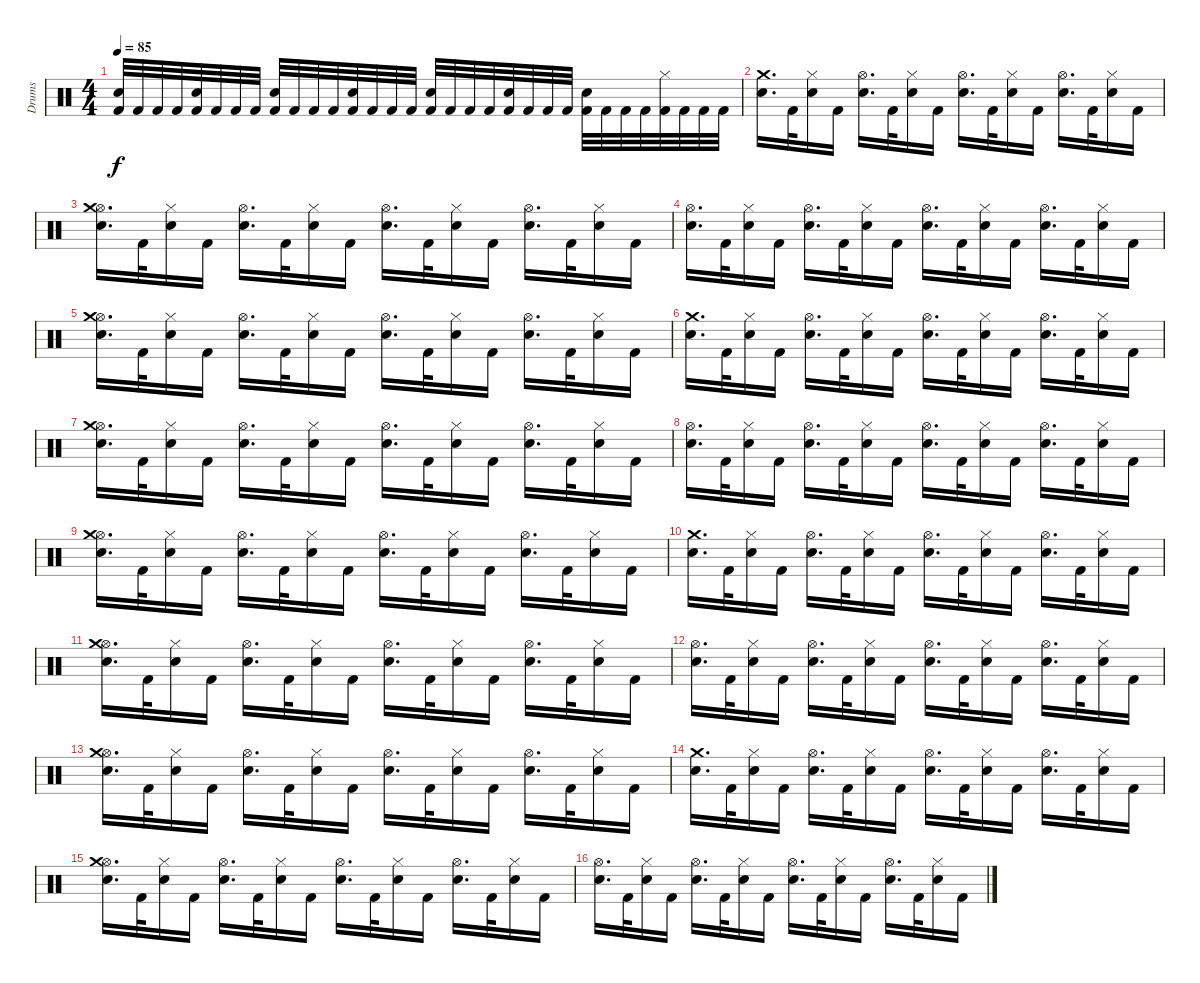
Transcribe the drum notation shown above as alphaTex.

\track ("Drums" "Drums") {instrument percussion}
\staff {score}
\articulation defaults
\ts (4 4)
\tempo 85
\clef neutral
\ks c
("Electric Snare (hit)" "Kick (hit) 2").32{dy f} "Kick (hit) 2".32 "Kick (hit) 2".32 "Kick (hit) 2".32 ("Electric Snare (hit)" "Kick (hit) 2").32 "Kick (hit) 2".32 "Kick (hit) 2".32 "Kick (hit) 2".32 ("Electric Snare (hit)" "Kick (hit) 2").32 "Kick (hit) 2".32 "Kick (hit) 2".32 "Kick (hit) 2".32 ("Electric Snare (hit)" "Kick (hit) 2").32 "Kick (hit) 2".32 "Kick (hit) 2".32 "Kick (hit) 2".32 ("Electric Snare (hit)" "Kick (hit) 2").32 "Kick (hit) 2".32 "Kick (hit) 2".32 "Kick (hit) 2".32 ("Electric Snare (hit)" "Kick (hit) 2").32 "Kick (hit) 2".32 "Kick (hit) 2".32 "Kick (hit) 2".32 ("Electric Snare (hit)" "Kick (hit) 2").32 "Kick (hit) 2".32 "Kick (hit) 2".32 "Kick (hit) 2".32 ("Hi-Hat (closed)" "Kick (hit) 2").32 "Kick (hit) 2".32 "Kick (hit) 2".32 "Kick (hit) 2".32 |
("Crash medium (hit)" "Electric Snare (hit)").16{d} "Kick (hit) 2".32 ("Hi-Hat (closed)" "Electric Snare (hit)").16 "Kick (hit) 2".16 ("Hi-Hat (open)" "Electric Snare (hit)").16{d} "Kick (hit) 2".32 ("Hi-Hat (closed)" "Electric Snare (hit)").16 "Kick (hit) 2".16 ("Hi-Hat (open)" "Electric Snare (hit)").16{d} "Kick (hit) 2".32 ("Hi-Hat (closed)" "Electric Snare (hit)").16 "Kick (hit) 2".16 ("Hi-Hat (open)" "Electric Snare (hit)").16{d} "Kick (hit) 2".32 ("Hi-Hat (closed)" "Electric Snare (hit)").16 "Kick (hit) 2".16 |
("Hi-Hat (open)" "Crash medium (hit)" "Electric Snare (hit)").16{d} "Kick (hit) 2".32 ("Hi-Hat (closed)" "Electric Snare (hit)").16 "Kick (hit) 2".16 ("Hi-Hat (open)" "Electric Snare (hit)").16{d} "Kick (hit) 2".32 ("Hi-Hat (closed)" "Electric Snare (hit)").16 "Kick (hit) 2".16 ("Hi-Hat (open)" "Electric Snare (hit)").16{d} "Kick (hit) 2".32 ("Hi-Hat (closed)" "Electric Snare (hit)").16 "Kick (hit) 2".16 ("Hi-Hat (open)" "Electric Snare (hit)").16{d} "Kick (hit) 2".32 ("Hi-Hat (closed)" "Electric Snare (hit)").16 "Kick (hit) 2".16 |
("Hi-Hat (open)" "Electric Snare (hit)").16{d} "Kick (hit) 2".32 ("Hi-Hat (closed)" "Electric Snare (hit)").16 "Kick (hit) 2".16 ("Hi-Hat (open)" "Electric Snare (hit)").16{d} "Kick (hit) 2".32 ("Hi-Hat (closed)" "Electric Snare (hit)").16 "Kick (hit) 2".16 ("Hi-Hat (open)" "Electric Snare (hit)").16{d} "Kick (hit) 2".32 ("Hi-Hat (closed)" "Electric Snare (hit)").16 "Kick (hit) 2".16 ("Hi-Hat (open)" "Electric Snare (hit)").16{d} "Kick (hit) 2".32 ("Hi-Hat (closed)" "Electric Snare (hit)").16 "Kick (hit) 2".16 |
("Hi-Hat (open)" "Crash medium (hit)" "Electric Snare (hit)").16{d} "Kick (hit) 2".32 ("Hi-Hat (closed)" "Electric Snare (hit)").16 "Kick (hit) 2".16 ("Hi-Hat (open)" "Electric Snare (hit)").16{d} "Kick (hit) 2".32 ("Hi-Hat (closed)" "Electric Snare (hit)").16 "Kick (hit) 2".16 ("Hi-Hat (open)" "Electric Snare (hit)").16{d} "Kick (hit) 2".32 ("Hi-Hat (closed)" "Electric Snare (hit)").16 "Kick (hit) 2".16 ("Hi-Hat (open)" "Electric Snare (hit)").16{d} "Kick (hit) 2".32 ("Hi-Hat (closed)" "Electric Snare (hit)").16 "Kick (hit) 2".16 |
("Crash medium (hit)" "Electric Snare (hit)").16{d volume 10} "Kick (hit) 2".32 ("Hi-Hat (closed)" "Electric Snare (hit)").16 "Kick (hit) 2".16 ("Hi-Hat (open)" "Electric Snare (hit)").16{d} "Kick (hit) 2".32 ("Hi-Hat (closed)" "Electric Snare (hit)").16 "Kick (hit) 2".16 ("Hi-Hat (open)" "Electric Snare (hit)").16{d} "Kick (hit) 2".32 ("Hi-Hat (closed)" "Electric Snare (hit)").16 "Kick (hit) 2".16 ("Hi-Hat (open)" "Electric Snare (hit)").16{d} "Kick (hit) 2".32 ("Hi-Hat (closed)" "Electric Snare (hit)").16 "Kick (hit) 2".16 |
("Hi-Hat (open)" "Crash medium (hit)" "Electric Snare (hit)").16{d} "Kick (hit) 2".32 ("Hi-Hat (closed)" "Electric Snare (hit)").16 "Kick (hit) 2".16 ("Hi-Hat (open)" "Electric Snare (hit)").16{d} "Kick (hit) 2".32 ("Hi-Hat (closed)" "Electric Snare (hit)").16 "Kick (hit) 2".16 ("Hi-Hat (open)" "Electric Snare (hit)").16{d} "Kick (hit) 2".32 ("Hi-Hat (closed)" "Electric Snare (hit)").16 "Kick (hit) 2".16 ("Hi-Hat (open)" "Electric Snare (hit)").16{d} "Kick (hit) 2".32 ("Hi-Hat (closed)" "Electric Snare (hit)").16 "Kick (hit) 2".16 |
("Hi-Hat (open)" "Electric Snare (hit)").16{d} "Kick (hit) 2".32 ("Hi-Hat (closed)" "Electric Snare (hit)").16 "Kick (hit) 2".16 ("Hi-Hat (open)" "Electric Snare (hit)").16{d} "Kick (hit) 2".32 ("Hi-Hat (closed)" "Electric Snare (hit)").16 "Kick (hit) 2".16 ("Hi-Hat (open)" "Electric Snare (hit)").16{d} "Kick (hit) 2".32 ("Hi-Hat (closed)" "Electric Snare (hit)").16 "Kick (hit) 2".16 ("Hi-Hat (open)" "Electric Snare (hit)").16{d} "Kick (hit) 2".32 ("Hi-Hat (closed)" "Electric Snare (hit)").16 "Kick (hit) 2".16 |
("Hi-Hat (open)" "Crash medium (hit)" "Electric Snare (hit)").16{d volume 7} "Kick (hit) 2".32 ("Hi-Hat (closed)" "Electric Snare (hit)").16 "Kick (hit) 2".16 ("Hi-Hat (open)" "Electric Snare (hit)").16{d} "Kick (hit) 2".32 ("Hi-Hat (closed)" "Electric Snare (hit)").16 "Kick (hit) 2".16 ("Hi-Hat (open)" "Electric Snare (hit)").16{d} "Kick (hit) 2".32 ("Hi-Hat (closed)" "Electric Snare (hit)").16 "Kick (hit) 2".16 ("Hi-Hat (open)" "Electric Snare (hit)").16{d} "Kick (hit) 2".32 ("Hi-Hat (closed)" "Electric Snare (hit)").16 "Kick (hit) 2".16 |
("Crash medium (hit)" "Electric Snare (hit)").16{d} "Kick (hit) 2".32 ("Hi-Hat (closed)" "Electric Snare (hit)").16 "Kick (hit) 2".16 ("Hi-Hat (open)" "Electric Snare (hit)").16{d} "Kick (hit) 2".32 ("Hi-Hat (closed)" "Electric Snare (hit)").16 "Kick (hit) 2".16 ("Hi-Hat (open)" "Electric Snare (hit)").16{d} "Kick (hit) 2".32 ("Hi-Hat (closed)" "Electric Snare (hit)").16 "Kick (hit) 2".16 ("Hi-Hat (open)" "Electric Snare (hit)").16{d} "Kick (hit) 2".32 ("Hi-Hat (closed)" "Electric Snare (hit)").16 "Kick (hit) 2".16 |
("Hi-Hat (open)" "Crash medium (hit)" "Electric Snare (hit)").16{d} "Kick (hit) 2".32 ("Hi-Hat (closed)" "Electric Snare (hit)").16 "Kick (hit) 2".16 ("Hi-Hat (open)" "Electric Snare (hit)").16{d} "Kick (hit) 2".32 ("Hi-Hat (closed)" "Electric Snare (hit)").16 "Kick (hit) 2".16 ("Hi-Hat (open)" "Electric Snare (hit)").16{d} "Kick (hit) 2".32 ("Hi-Hat (closed)" "Electric Snare (hit)").16 "Kick (hit) 2".16 ("Hi-Hat (open)" "Electric Snare (hit)").16{d} "Kick (hit) 2".32 ("Hi-Hat (closed)" "Electric Snare (hit)").16 "Kick (hit) 2".16 |
("Hi-Hat (open)" "Electric Snare (hit)").16{d volume 5} "Kick (hit) 2".32 ("Hi-Hat (closed)" "Electric Snare (hit)").16 "Kick (hit) 2".16 ("Hi-Hat (open)" "Electric Snare (hit)").16{d} "Kick (hit) 2".32 ("Hi-Hat (closed)" "Electric Snare (hit)").16 "Kick (hit) 2".16 ("Hi-Hat (open)" "Electric Snare (hit)").16{d} "Kick (hit) 2".32 ("Hi-Hat (closed)" "Electric Snare (hit)").16 "Kick (hit) 2".16 ("Hi-Hat (open)" "Electric Snare (hit)").16{d} "Kick (hit) 2".32 ("Hi-Hat (closed)" "Electric Snare (hit)").16 "Kick (hit) 2".16 |
("Hi-Hat (open)" "Crash medium (hit)" "Electric Snare (hit)").16{d} "Kick (hit) 2".32 ("Hi-Hat (closed)" "Electric Snare (hit)").16 "Kick (hit) 2".16 ("Hi-Hat (open)" "Electric Snare (hit)").16{d} "Kick (hit) 2".32 ("Hi-Hat (closed)" "Electric Snare (hit)").16 "Kick (hit) 2".16 ("Hi-Hat (open)" "Electric Snare (hit)").16{d} "Kick (hit) 2".32 ("Hi-Hat (closed)" "Electric Snare (hit)").16 "Kick (hit) 2".16 ("Hi-Hat (open)" "Electric Snare (hit)").16{d} "Kick (hit) 2".32 ("Hi-Hat (closed)" "Electric Snare (hit)").16 "Kick (hit) 2".16 |
("Crash medium (hit)" "Electric Snare (hit)").16{d} "Kick (hit) 2".32 ("Hi-Hat (closed)" "Electric Snare (hit)").16 "Kick (hit) 2".16 ("Hi-Hat (open)" "Electric Snare (hit)").16{d} "Kick (hit) 2".32 ("Hi-Hat (closed)" "Electric Snare (hit)").16 "Kick (hit) 2".16 ("Hi-Hat (open)" "Electric Snare (hit)").16{d} "Kick (hit) 2".32 ("Hi-Hat (closed)" "Electric Snare (hit)").16 "Kick (hit) 2".16 ("Hi-Hat (open)" "Electric Snare (hit)").16{d} "Kick (hit) 2".32 ("Hi-Hat (closed)" "Electric Snare (hit)").16 "Kick (hit) 2".16 |
("Hi-Hat (open)" "Crash medium (hit)" "Electric Snare (hit)").16{d volume 0} "Kick (hit) 2".32 ("Hi-Hat (closed)" "Electric Snare (hit)").16 "Kick (hit) 2".16 ("Hi-Hat (open)" "Electric Snare (hit)").16{d} "Kick (hit) 2".32 ("Hi-Hat (closed)" "Electric Snare (hit)").16 "Kick (hit) 2".16 ("Hi-Hat (open)" "Electric Snare (hit)").16{d} "Kick (hit) 2".32 ("Hi-Hat (closed)" "Electric Snare (hit)").16 "Kick (hit) 2".16 ("Hi-Hat (open)" "Electric Snare (hit)").16{d} "Kick (hit) 2".32 ("Hi-Hat (closed)" "Electric Snare (hit)").16 "Kick (hit) 2".16 |
("Hi-Hat (open)" "Electric Snare (hit)").16{d} "Kick (hit) 2".32 ("Hi-Hat (closed)" "Electric Snare (hit)").16 "Kick (hit) 2".16 ("Hi-Hat (open)" "Electric Snare (hit)").16{d} "Kick (hit) 2".32 ("Hi-Hat (closed)" "Electric Snare (hit)").16 "Kick (hit) 2".16 ("Hi-Hat (open)" "Electric Snare (hit)").16{d} "Kick (hit) 2".32 ("Hi-Hat (closed)" "Electric Snare (hit)").16 "Kick (hit) 2".16 ("Hi-Hat (open)" "Electric Snare (hit)").16{d} "Kick (hit) 2".32 ("Hi-Hat (closed)" "Electric Snare (hit)").16 "Kick (hit) 2".16
